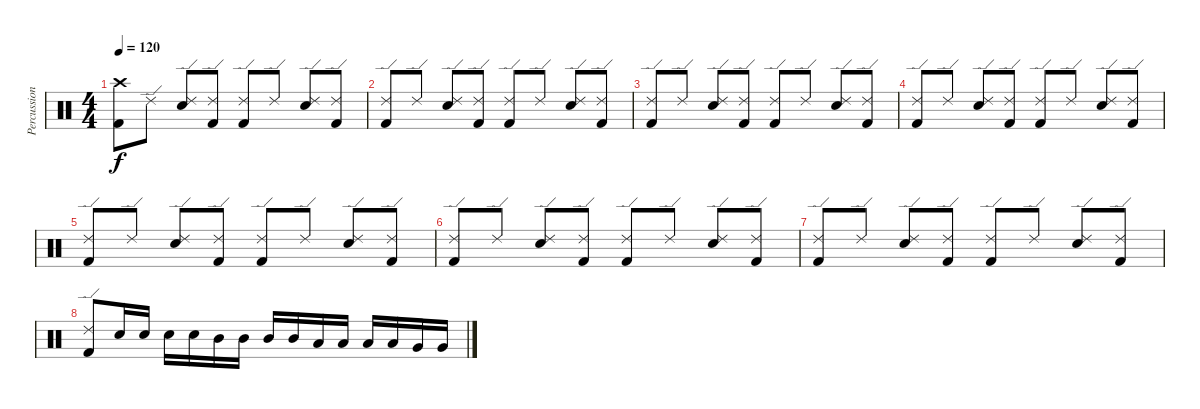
\track ("Percussion" "Percussion") {instrument percussion}
\staff {score}
\articulation defaults
\ts (4 4)
\tempo 120
\clef neutral
\ks c
("Crash high (hit)" "Kick (hit) 2").8{dy f} "Ride (edge) 2".8 ("Ride (edge) 2" "Snare (hit) 2").8 ("Ride (edge) 2" "Kick (hit) 2").8 ("Ride (edge) 2" "Kick (hit) 2").8 "Ride (edge) 2".8 ("Ride (edge) 2" "Snare (hit) 2").8 ("Ride (edge) 2" "Kick (hit) 2").8 |
("Ride (edge) 2" "Kick (hit) 2").8 "Ride (edge) 2".8 ("Ride (edge) 2" "Snare (hit) 2").8 ("Ride (edge) 2" "Kick (hit) 2").8 ("Ride (edge) 2" "Kick (hit) 2").8 "Ride (edge) 2".8 ("Ride (edge) 2" "Snare (hit) 2").8 ("Ride (edge) 2" "Kick (hit) 2").8 |
("Ride (edge) 2" "Kick (hit) 2").8 "Ride (edge) 2".8 ("Ride (edge) 2" "Snare (hit) 2").8 ("Ride (edge) 2" "Kick (hit) 2").8 ("Ride (edge) 2" "Kick (hit) 2").8 "Ride (edge) 2".8 ("Ride (edge) 2" "Snare (hit) 2").8 ("Ride (edge) 2" "Kick (hit) 2").8 |
("Ride (edge) 2" "Kick (hit) 2").8 "Ride (edge) 2".8 ("Ride (edge) 2" "Snare (hit) 2").8 ("Ride (edge) 2" "Kick (hit) 2").8 ("Ride (edge) 2" "Kick (hit) 2").8 "Ride (edge) 2".8 ("Ride (edge) 2" "Snare (hit) 2").8 ("Ride (edge) 2" "Kick (hit) 2").8 |
("Ride (edge) 2" "Kick (hit) 2").8 "Ride (edge) 2".8 ("Ride (edge) 2" "Snare (hit) 2").8 ("Ride (edge) 2" "Kick (hit) 2").8 ("Ride (edge) 2" "Kick (hit) 2").8 "Ride (edge) 2".8 ("Ride (edge) 2" "Snare (hit) 2").8 ("Ride (edge) 2" "Kick (hit) 2").8 |
("Ride (edge) 2" "Kick (hit) 2").8 "Ride (edge) 2".8 ("Ride (edge) 2" "Snare (hit) 2").8 ("Ride (edge) 2" "Kick (hit) 2").8 ("Ride (edge) 2" "Kick (hit) 2").8 "Ride (edge) 2".8 ("Ride (edge) 2" "Snare (hit) 2").8 ("Ride (edge) 2" "Kick (hit) 2").8 |
("Ride (edge) 2" "Kick (hit) 2").8 "Ride (edge) 2".8 ("Ride (edge) 2" "Snare (hit) 2").8 ("Ride (edge) 2" "Kick (hit) 2").8 ("Ride (edge) 2" "Kick (hit) 2").8 "Ride (edge) 2".8 ("Ride (edge) 2" "Snare (hit) 2").8 ("Ride (edge) 2" "Kick (hit) 2").8 |
("Ride (edge) 2" "Kick (hit) 2").8 "Snare (hit) 2".16 "Snare (hit) 2".16 "Snare (hit) 2".16 "Snare (hit) 2".16 "Mid Tom (hit)".16 "Mid Tom (hit)".16 "Mid Tom (hit)".16 "Mid Tom (hit)".16 "Low Tom (hit)".16 "Low Tom (hit)".16 "Low Tom (hit)".16 "Low Tom (hit)".16 "Very Low Tom (hit)".16 "Very Low Tom (hit)".16
